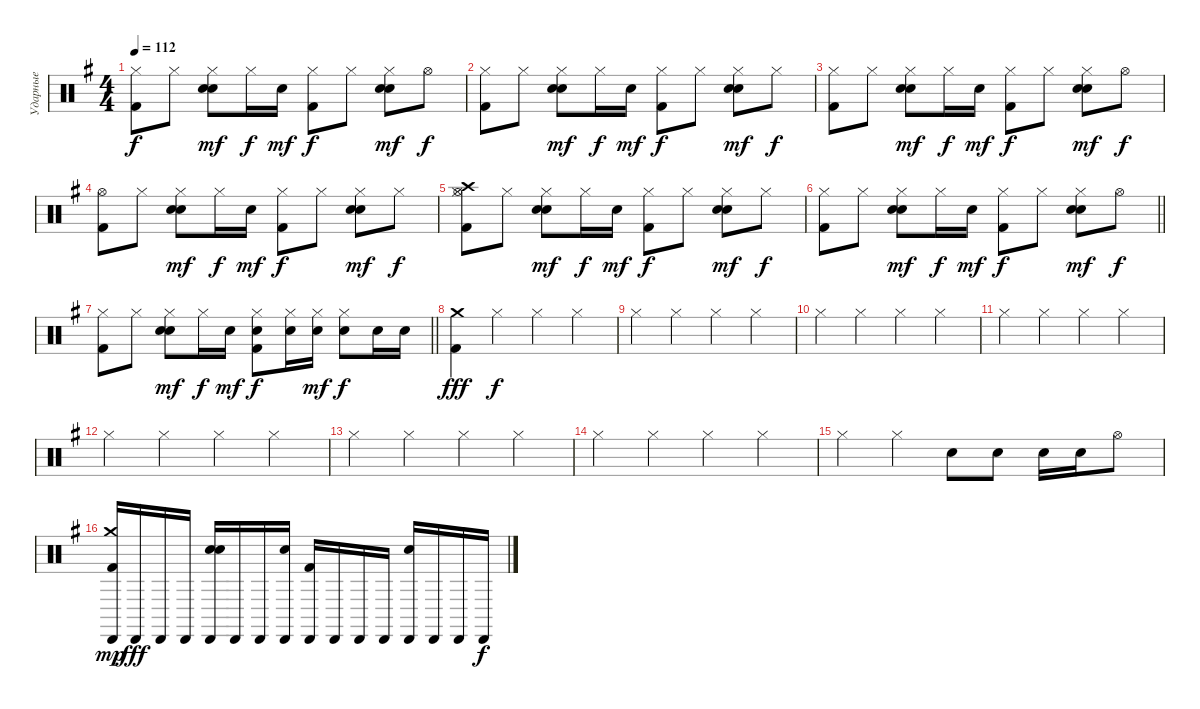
\track ("Ударные" "Ударные") {instrument percussion}
\staff {score}
\articulation defaults
\ts (4 4)
\tempo 112
\clef neutral
\ks eminor
("Hi-Hat (closed)" "Kick (hit) 2").8{dy f} "Hi-Hat (closed)".8 ("Hi-Hat (closed)" "Electric Snare (hit)" "Snare (hit) 2").8{dy mf} "Hi-Hat (closed)".16{dy f} "Snare (hit) 2".16{dy mf} ("Hi-Hat (closed)" "Kick (hit) 2").8{dy f} "Hi-Hat (closed)".8 ("Hi-Hat (closed)" "Electric Snare (hit)" "Snare (hit) 2").8{dy mf} "Hi-Hat (open)".8{dy f} |
("Hi-Hat (closed)" "Kick (hit) 2").8 "Hi-Hat (closed)".8 ("Hi-Hat (closed)" "Electric Snare (hit)" "Snare (hit) 2").8{dy mf} "Hi-Hat (closed)".16{dy f} "Snare (hit) 2".16{dy mf} ("Hi-Hat (closed)" "Kick (hit) 2").8{dy f} "Hi-Hat (closed)".8 ("Hi-Hat (closed)" "Electric Snare (hit)" "Snare (hit) 2").8{dy mf} "Hi-Hat (closed)".8{dy f} |
("Hi-Hat (closed)" "Kick (hit) 2").8 "Hi-Hat (closed)".8 ("Hi-Hat (closed)" "Electric Snare (hit)" "Snare (hit) 2").8{dy mf} "Hi-Hat (closed)".16{dy f} "Snare (hit) 2".16{dy mf} ("Hi-Hat (closed)" "Kick (hit) 2").8{dy f} "Hi-Hat (closed)".8 ("Hi-Hat (closed)" "Electric Snare (hit)" "Snare (hit) 2").8{dy mf} "Hi-Hat (open)".8{dy f} |
("Hi-Hat (open)" "Kick (hit) 2").8 "Hi-Hat (closed)".8 ("Hi-Hat (closed)" "Electric Snare (hit)" "Snare (hit) 2").8{dy mf} "Hi-Hat (closed)".16{dy f} "Snare (hit) 2".16{dy mf} ("Hi-Hat (closed)" "Kick (hit) 2").8{dy f} "Hi-Hat (closed)".8 ("Hi-Hat (closed)" "Electric Snare (hit)" "Snare (hit) 2").8{dy mf} "Hi-Hat (closed)".8{dy f} |
("Hi-Hat (closed)" "Crash high (hit)" "Kick (hit) 2" "Hi-Hat (open)").8 "Hi-Hat (closed)".8 ("Hi-Hat (closed)" "Electric Snare (hit)" "Snare (hit) 2").8{dy mf} "Hi-Hat (closed)".16{dy f} "Snare (hit) 2".16{dy mf} ("Hi-Hat (closed)" "Kick (hit) 2").8{dy f} "Hi-Hat (closed)".8 ("Hi-Hat (closed)" "Electric Snare (hit)" "Snare (hit) 2").8{dy mf} "Hi-Hat (closed)".8{dy f} |
\barLineRight lightlight
("Hi-Hat (closed)" "Kick (hit) 2").8 "Hi-Hat (closed)".8 ("Hi-Hat (closed)" "Electric Snare (hit)" "Snare (hit) 2").8{dy mf} "Hi-Hat (closed)".16{dy f} "Snare (hit) 2".16{dy mf} ("Hi-Hat (closed)" "Kick (hit) 2").8{dy f} "Hi-Hat (closed)".8 ("Hi-Hat (closed)" "Electric Snare (hit)" "Snare (hit) 2").8{dy mf} "Hi-Hat (open)".8{dy f} |
\barLineRight lightlight
("Hi-Hat (closed)" "Kick (hit) 2").8 "Hi-Hat (closed)".8 ("Hi-Hat (closed)" "Electric Snare (hit)" "Snare (hit) 2").8{dy mf} "Hi-Hat (closed)".16{dy f} "Snare (hit) 2".16{dy mf} ("Hi-Hat (closed)" "Kick (hit) 2" "Snare (hit) 2").8{dy f} ("Hi-Hat (closed)" "Snare (hit) 2").16 ("Hi-Hat (closed)" "Snare (hit) 2").16{dy mf} ("Hi-Hat (closed)" "Snare (hit) 2").8{dy f} "Snare (hit) 2".16 "Snare (hit) 2".16 |
("Kick (hit) 2" "Crash medium (hit)").4{dy fff} "Hi-Hat (closed)".4{dy f} "Hi-Hat (closed)".4 "Hi-Hat (closed)".4 |
"Hi-Hat (closed)".4 "Hi-Hat (closed)".4 "Hi-Hat (closed)".4 "Hi-Hat (closed)".4 |
"Hi-Hat (closed)".4 "Hi-Hat (closed)".4 "Hi-Hat (closed)".4 "Hi-Hat (closed)".4 |
"Hi-Hat (closed)".4 "Hi-Hat (closed)".4 "Hi-Hat (closed)".4 "Hi-Hat (closed)".4 |
"Hi-Hat (closed)".4 "Hi-Hat (closed)".4 "Hi-Hat (closed)".4 "Hi-Hat (closed)".4 |
"Hi-Hat (closed)".4 "Hi-Hat (closed)".4 "Hi-Hat (closed)".4 "Hi-Hat (closed)".4 |
"Hi-Hat (closed)".4 "Hi-Hat (closed)".4 "Hi-Hat (closed)".4 "Hi-Hat (closed)".4 |
"Hi-Hat (closed)".4 "Hi-Hat (closed)".4 "Snare (hit) 2".8 "Snare (hit) 2".8 "Snare (hit) 2".16 "Snare (hit) 2".16 "Hi-Hat (open)".8 |
("Cabasa (hit)" "Crash medium (hit)" "Kick (hit) 2").16{dy mp} "Cabasa (hit)".16{dy fff} "Cabasa (hit)".16 "Cabasa (hit)".16 ("Cabasa (hit)" "Electric Snare (hit)" "Snare (hit) 2").16 "Cabasa (hit)".16 "Cabasa (hit)".16 ("Cabasa (hit)" "Snare (hit) 2").16 ("Cabasa (hit)" "Kick (hit) 2").16 "Cabasa (hit)".16 "Cabasa (hit)".16 "Cabasa (hit)".16 ("Cabasa (hit)" "Snare (hit) 2").16 "Cabasa (hit)".16 "Cabasa (hit)".16 "Cabasa (hit)".16{dy f}
